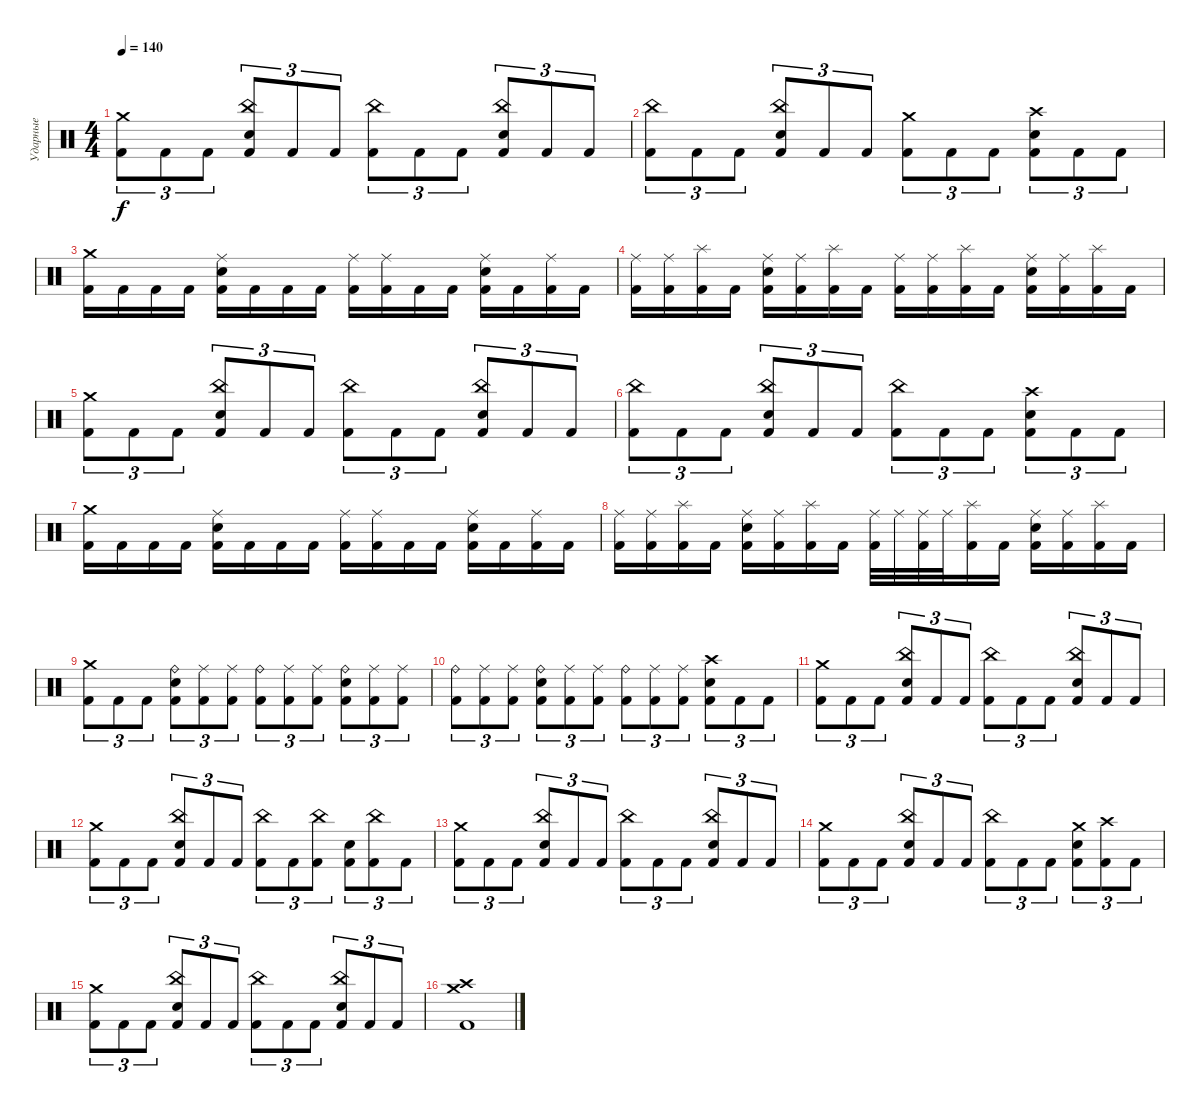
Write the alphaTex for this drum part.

\track ("Ударные" "Ударные") {instrument percussion}
\staff {score}
\articulation defaults
\ts (4 4)
\tempo 140
\clef neutral
\ks c
("Crash medium (hit)" "Kick (hit) 2").8{tu (3 2) dy f} "Kick (hit) 2".8{tu (3 2)} "Kick (hit) 2".8{tu (3 2)} ("China (hit)" "Electric Snare (hit)" "Kick (hit) 2").8{tu (3 2)} "Kick (hit) 2".8{tu (3 2)} "Kick (hit) 2".8{tu (3 2)} ("China (hit)" "Kick (hit) 2").8{tu (3 2)} "Kick (hit) 2".8{tu (3 2)} "Kick (hit) 2".8{tu (3 2)} ("China (hit)" "Electric Snare (hit)" "Kick (hit) 2").8{tu (3 2)} "Kick (hit) 2".8{tu (3 2)} "Kick (hit) 2".8{tu (3 2)} |
("China (hit)" "Kick (hit) 2").8{tu (3 2)} "Kick (hit) 2".8{tu (3 2)} "Kick (hit) 2".8{tu (3 2)} ("China (hit)" "Electric Snare (hit)" "Kick (hit) 2").8{tu (3 2)} "Kick (hit) 2".8{tu (3 2)} "Kick (hit) 2".8{tu (3 2)} ("Crash medium (hit)" "Kick (hit) 2").8{tu (3 2)} "Kick (hit) 2".8{tu (3 2)} "Kick (hit) 2".8{tu (3 2)} ("Crash high (hit)" "Electric Snare (hit)" "Kick (hit) 2").8{tu (3 2)} "Kick (hit) 2".8{tu (3 2)} "Kick (hit) 2".8{tu (3 2)} |
("Crash medium (hit)" "Kick (hit) 2").16 "Kick (hit) 2".16 "Kick (hit) 2".16 "Kick (hit) 2".16 ("Ride (middle)" "Electric Snare (hit)" "Kick (hit) 2").16 "Kick (hit) 2".16 "Kick (hit) 2".16 "Kick (hit) 2".16 ("Ride (middle)" "Kick (hit) 2").16 ("Ride (middle)" "Kick (hit) 2").16 "Kick (hit) 2".16 "Kick (hit) 2".16 ("Ride (middle)" "Electric Snare (hit)" "Kick (hit) 2").16 "Kick (hit) 2".16 ("Ride (middle)" "Kick (hit) 2").16 "Kick (hit) 2".16 |
("Ride (middle)" "Kick (hit) 2").16 ("Ride (middle)" "Kick (hit) 2").16 ("Splash (hit)" "Kick (hit) 2").16 "Kick (hit) 2".16 ("Ride (middle)" "Electric Snare (hit)" "Kick (hit) 2").16 ("Ride (middle)" "Kick (hit) 2").16 ("Splash (hit)" "Kick (hit) 2").16 "Kick (hit) 2".16 ("Ride (middle)" "Kick (hit) 2").16 ("Ride (middle)" "Kick (hit) 2").16 ("Splash (hit)" "Kick (hit) 2").16 "Kick (hit) 2".16 ("Ride (middle)" "Electric Snare (hit)" "Kick (hit) 2").16 ("Ride (middle)" "Kick (hit) 2").16 ("Splash (hit)" "Kick (hit) 2").16 "Kick (hit) 2".16 |
("Crash medium (hit)" "Kick (hit) 2").8{tu (3 2)} "Kick (hit) 2".8{tu (3 2)} "Kick (hit) 2".8{tu (3 2)} ("China (hit)" "Electric Snare (hit)" "Kick (hit) 2").8{tu (3 2)} "Kick (hit) 2".8{tu (3 2)} "Kick (hit) 2".8{tu (3 2)} ("China (hit)" "Kick (hit) 2").8{tu (3 2)} "Kick (hit) 2".8{tu (3 2)} "Kick (hit) 2".8{tu (3 2)} ("China (hit)" "Electric Snare (hit)" "Kick (hit) 2").8{tu (3 2)} "Kick (hit) 2".8{tu (3 2)} "Kick (hit) 2".8{tu (3 2)} |
("China (hit)" "Kick (hit) 2").8{tu (3 2)} "Kick (hit) 2".8{tu (3 2)} "Kick (hit) 2".8{tu (3 2)} ("China (hit)" "Electric Snare (hit)" "Kick (hit) 2").8{tu (3 2)} "Kick (hit) 2".8{tu (3 2)} "Kick (hit) 2".8{tu (3 2)} ("China (hit)" "Kick (hit) 2").8{tu (3 2)} "Kick (hit) 2".8{tu (3 2)} "Kick (hit) 2".8{tu (3 2)} ("Crash high (hit)" "Electric Snare (hit)" "Kick (hit) 2").8{tu (3 2)} "Kick (hit) 2".8{tu (3 2)} "Kick (hit) 2".8{tu (3 2)} |
("Crash medium (hit)" "Kick (hit) 2").16 "Kick (hit) 2".16 "Kick (hit) 2".16 "Kick (hit) 2".16 ("Ride (middle)" "Electric Snare (hit)" "Kick (hit) 2").16 "Kick (hit) 2".16 "Kick (hit) 2".16 "Kick (hit) 2".16 ("Ride (middle)" "Kick (hit) 2").16 ("Ride (middle)" "Kick (hit) 2").16 "Kick (hit) 2".16 "Kick (hit) 2".16 ("Ride (middle)" "Electric Snare (hit)" "Kick (hit) 2").16 "Kick (hit) 2".16 ("Ride (middle)" "Kick (hit) 2").16 "Kick (hit) 2".16 |
("Ride (middle)" "Kick (hit) 2").16 ("Ride (middle)" "Kick (hit) 2").16 ("Splash (hit)" "Kick (hit) 2").16 "Kick (hit) 2".16 ("Ride (middle)" "Electric Snare (hit)" "Kick (hit) 2").16 ("Ride (middle)" "Kick (hit) 2").16 ("Splash (hit)" "Kick (hit) 2").16 "Kick (hit) 2".16 ("Ride (middle)" "Kick (hit) 2").32 "Ride (middle)".32 ("Ride (middle)" "Kick (hit) 2").32 "Ride (middle)".32 ("Splash (hit)" "Kick (hit) 2").16 "Kick (hit) 2".16 ("Ride (middle)" "Electric Snare (hit)" "Kick (hit) 2").16 ("Ride (middle)" "Kick (hit) 2").16 ("Splash (hit)" "Kick (hit) 2").16 "Kick (hit) 2".16 |
("Crash medium (hit)" "Kick (hit) 2").8{tu (3 2)} "Kick (hit) 2".8{tu (3 2)} "Kick (hit) 2".8{tu (3 2)} ("Ride (bell)" "Electric Snare (hit)" "Kick (hit) 2").8{tu (3 2)} ("Ride (middle)" "Kick (hit) 2").8{tu (3 2)} ("Ride (middle)" "Kick (hit) 2").8{tu (3 2)} ("Ride (bell)" "Kick (hit) 2").8{tu (3 2)} ("Ride (middle)" "Kick (hit) 2").8{tu (3 2)} ("Ride (middle)" "Kick (hit) 2").8{tu (3 2)} ("Ride (bell)" "Electric Snare (hit)" "Kick (hit) 2").8{tu (3 2)} ("Ride (middle)" "Kick (hit) 2").8{tu (3 2)} ("Ride (middle)" "Kick (hit) 2").8{tu (3 2)} |
("Ride (bell)" "Kick (hit) 2").8{tu (3 2)} ("Ride (middle)" "Kick (hit) 2").8{tu (3 2)} ("Ride (middle)" "Kick (hit) 2").8{tu (3 2)} ("Ride (bell)" "Electric Snare (hit)" "Kick (hit) 2").8{tu (3 2)} ("Ride (middle)" "Kick (hit) 2").8{tu (3 2)} ("Ride (middle)" "Kick (hit) 2").8{tu (3 2)} ("Ride (bell)" "Kick (hit) 2").8{tu (3 2)} ("Ride (middle)" "Kick (hit) 2").8{tu (3 2)} ("Ride (middle)" "Kick (hit) 2").8{tu (3 2)} ("Crash high (hit)" "Electric Snare (hit)" "Kick (hit) 2").8{tu (3 2)} "Kick (hit) 2".8{tu (3 2)} "Kick (hit) 2".8{tu (3 2)} |
("Crash medium (hit)" "Kick (hit) 2").8{tu (3 2)} "Kick (hit) 2".8{tu (3 2)} "Kick (hit) 2".8{tu (3 2)} ("China (hit)" "Electric Snare (hit)" "Kick (hit) 2").8{tu (3 2)} "Kick (hit) 2".8{tu (3 2)} "Kick (hit) 2".8{tu (3 2)} ("China (hit)" "Kick (hit) 2").8{tu (3 2)} "Kick (hit) 2".8{tu (3 2)} "Kick (hit) 2".8{tu (3 2)} ("China (hit)" "Electric Snare (hit)" "Kick (hit) 2").8{tu (3 2)} "Kick (hit) 2".8{tu (3 2)} "Kick (hit) 2".8{tu (3 2)} |
("Crash medium (hit)" "Kick (hit) 2").8{tu (3 2)} "Kick (hit) 2".8{tu (3 2)} "Kick (hit) 2".8{tu (3 2)} ("China (hit)" "Electric Snare (hit)" "Kick (hit) 2").8{tu (3 2)} "Kick (hit) 2".8{tu (3 2)} "Kick (hit) 2".8{tu (3 2)} ("China (hit)" "Kick (hit) 2").8{tu (3 2)} "Kick (hit) 2".8{tu (3 2)} ("China (hit)" "Kick (hit) 2").8{tu (3 2)} ("Electric Snare (hit)" "Kick (hit) 2").8{tu (3 2)} ("China (hit)" "Kick (hit) 2").8{tu (3 2)} "Kick (hit) 2".8{tu (3 2)} |
("Crash medium (hit)" "Kick (hit) 2").8{tu (3 2)} "Kick (hit) 2".8{tu (3 2)} "Kick (hit) 2".8{tu (3 2)} ("China (hit)" "Electric Snare (hit)" "Kick (hit) 2").8{tu (3 2)} "Kick (hit) 2".8{tu (3 2)} "Kick (hit) 2".8{tu (3 2)} ("China (hit)" "Kick (hit) 2").8{tu (3 2)} "Kick (hit) 2".8{tu (3 2)} "Kick (hit) 2".8{tu (3 2)} ("China (hit)" "Electric Snare (hit)" "Kick (hit) 2").8{tu (3 2)} "Kick (hit) 2".8{tu (3 2)} "Kick (hit) 2".8{tu (3 2)} |
("Crash medium (hit)" "Kick (hit) 2").8{tu (3 2)} "Kick (hit) 2".8{tu (3 2)} "Kick (hit) 2".8{tu (3 2)} ("China (hit)" "Electric Snare (hit)" "Kick (hit) 2").8{tu (3 2)} "Kick (hit) 2".8{tu (3 2)} "Kick (hit) 2".8{tu (3 2)} ("China (hit)" "Kick (hit) 2").8{tu (3 2)} "Kick (hit) 2".8{tu (3 2)} "Kick (hit) 2".8{tu (3 2)} ("Crash medium (hit)" "Electric Snare (hit)" "Kick (hit) 2").8{tu (3 2)} ("Crash high (hit)" "Kick (hit) 2").8{tu (3 2)} "Kick (hit) 2".8{tu (3 2)} |
("Crash medium (hit)" "Kick (hit) 2").8{tu (3 2)} "Kick (hit) 2".8{tu (3 2)} "Kick (hit) 2".8{tu (3 2)} ("China (hit)" "Electric Snare (hit)" "Kick (hit) 2").8{tu (3 2)} "Kick (hit) 2".8{tu (3 2)} "Kick (hit) 2".8{tu (3 2)} ("China (hit)" "Kick (hit) 2").8{tu (3 2)} "Kick (hit) 2".8{tu (3 2)} "Kick (hit) 2".8{tu (3 2)} ("China (hit)" "Electric Snare (hit)" "Kick (hit) 2").8{tu (3 2)} "Kick (hit) 2".8{tu (3 2)} "Kick (hit) 2".8{tu (3 2)} |
("Crash medium (hit)" "Crash high (hit)" "Kick (hit) 2").1
